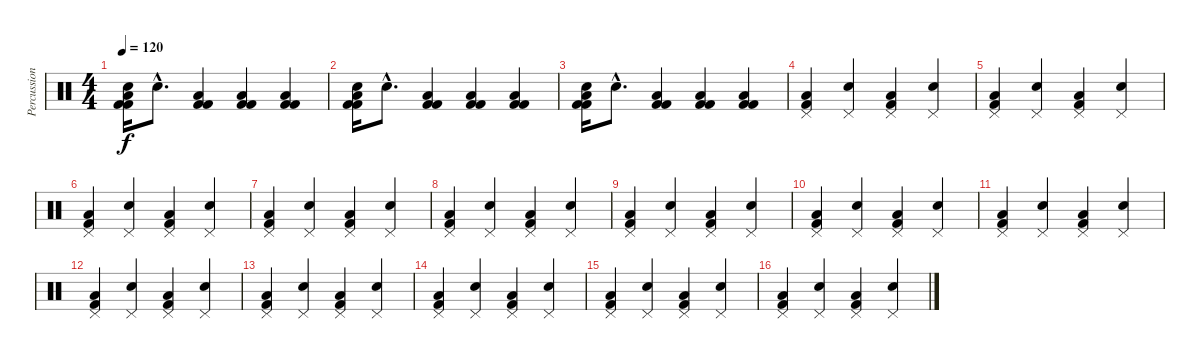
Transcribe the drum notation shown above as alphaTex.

\track ("Percussions" "Percussion") {instrument percussion}
\staff {score}
\articulation defaults
\ts (4 4)
\tempo 120
\clef neutral
\ks c
("Electric Snare (hit)" "Kick (hit) 2" "Kick (hit) 2" "Low Floor Tom (hit)").16{dy f} "Electric Snare (hit)"{hac}.8{d} ("Kick (hit) 2" "Kick (hit) 2" "Low Floor Tom (hit)").4 ("Kick (hit) 2" "Kick (hit) 2" "Low Floor Tom (hit)").4 ("Kick (hit) 2" "Kick (hit) 2" "Low Floor Tom (hit)").4 |
("Electric Snare (hit)" "Kick (hit) 2" "Kick (hit) 2" "Low Floor Tom (hit)").16 "Electric Snare (hit)"{hac}.8{d} ("Kick (hit) 2" "Kick (hit) 2" "Low Floor Tom (hit)").4 ("Kick (hit) 2" "Kick (hit) 2" "Low Floor Tom (hit)").4 ("Kick (hit) 2" "Kick (hit) 2" "Low Floor Tom (hit)").4 |
("Electric Snare (hit)" "Kick (hit) 2" "Kick (hit) 2" "Low Floor Tom (hit)").16 "Electric Snare (hit)"{hac}.8{d} ("Kick (hit) 2" "Kick (hit) 2" "Low Floor Tom (hit)").4 ("Kick (hit) 2" "Kick (hit) 2" "Low Floor Tom (hit)").4 ("Kick (hit) 2" "Kick (hit) 2" "Low Floor Tom (hit)").4 |
("Pedal Hi-Hat (hit)" "Kick (hit) 2" "Low Floor Tom (hit)").4 ("Pedal Hi-Hat (hit)" "Electric Snare (hit)").4 ("Pedal Hi-Hat (hit)" "Kick (hit) 2" "Low Floor Tom (hit)").4 ("Pedal Hi-Hat (hit)" "Electric Snare (hit)").4 |
("Pedal Hi-Hat (hit)" "Kick (hit) 2" "Low Floor Tom (hit)").4 ("Pedal Hi-Hat (hit)" "Electric Snare (hit)").4 ("Pedal Hi-Hat (hit)" "Kick (hit) 2" "Low Floor Tom (hit)").4 ("Pedal Hi-Hat (hit)" "Electric Snare (hit)").4 |
("Pedal Hi-Hat (hit)" "Kick (hit) 2" "Low Floor Tom (hit)").4 ("Pedal Hi-Hat (hit)" "Electric Snare (hit)").4 ("Pedal Hi-Hat (hit)" "Kick (hit) 2" "Low Floor Tom (hit)").4 ("Pedal Hi-Hat (hit)" "Electric Snare (hit)").4 |
("Pedal Hi-Hat (hit)" "Kick (hit) 2" "Low Floor Tom (hit)").4 ("Pedal Hi-Hat (hit)" "Electric Snare (hit)").4 ("Pedal Hi-Hat (hit)" "Kick (hit) 2" "Low Floor Tom (hit)").4 ("Pedal Hi-Hat (hit)" "Electric Snare (hit)").4 |
("Pedal Hi-Hat (hit)" "Kick (hit) 2" "Low Floor Tom (hit)").4 ("Pedal Hi-Hat (hit)" "Electric Snare (hit)").4 ("Pedal Hi-Hat (hit)" "Kick (hit) 2" "Low Floor Tom (hit)").4 ("Pedal Hi-Hat (hit)" "Electric Snare (hit)").4 |
("Pedal Hi-Hat (hit)" "Kick (hit) 2" "Low Floor Tom (hit)").4 ("Pedal Hi-Hat (hit)" "Electric Snare (hit)").4 ("Pedal Hi-Hat (hit)" "Kick (hit) 2" "Low Floor Tom (hit)").4 ("Pedal Hi-Hat (hit)" "Electric Snare (hit)").4 |
("Pedal Hi-Hat (hit)" "Kick (hit) 2" "Low Floor Tom (hit)").4 ("Pedal Hi-Hat (hit)" "Electric Snare (hit)").4 ("Pedal Hi-Hat (hit)" "Kick (hit) 2" "Low Floor Tom (hit)").4 ("Pedal Hi-Hat (hit)" "Electric Snare (hit)").4 |
("Pedal Hi-Hat (hit)" "Kick (hit) 2" "Low Floor Tom (hit)").4 ("Pedal Hi-Hat (hit)" "Electric Snare (hit)").4 ("Pedal Hi-Hat (hit)" "Kick (hit) 2" "Low Floor Tom (hit)").4 ("Pedal Hi-Hat (hit)" "Electric Snare (hit)").4 |
("Pedal Hi-Hat (hit)" "Kick (hit) 2" "Low Floor Tom (hit)").4 ("Pedal Hi-Hat (hit)" "Electric Snare (hit)").4 ("Pedal Hi-Hat (hit)" "Kick (hit) 2" "Low Floor Tom (hit)").4 ("Pedal Hi-Hat (hit)" "Electric Snare (hit)").4 |
("Pedal Hi-Hat (hit)" "Kick (hit) 2" "Low Floor Tom (hit)").4 ("Pedal Hi-Hat (hit)" "Electric Snare (hit)").4 ("Pedal Hi-Hat (hit)" "Kick (hit) 2" "Low Floor Tom (hit)").4 ("Pedal Hi-Hat (hit)" "Electric Snare (hit)").4 |
("Pedal Hi-Hat (hit)" "Kick (hit) 2" "Low Floor Tom (hit)").4 ("Pedal Hi-Hat (hit)" "Electric Snare (hit)").4 ("Pedal Hi-Hat (hit)" "Kick (hit) 2" "Low Floor Tom (hit)").4 ("Pedal Hi-Hat (hit)" "Electric Snare (hit)").4 |
("Pedal Hi-Hat (hit)" "Kick (hit) 2" "Low Floor Tom (hit)").4 ("Pedal Hi-Hat (hit)" "Electric Snare (hit)").4 ("Pedal Hi-Hat (hit)" "Kick (hit) 2" "Low Floor Tom (hit)").4 ("Pedal Hi-Hat (hit)" "Electric Snare (hit)").4 |
("Pedal Hi-Hat (hit)" "Kick (hit) 2" "Low Floor Tom (hit)").4 ("Pedal Hi-Hat (hit)" "Electric Snare (hit)").4 ("Pedal Hi-Hat (hit)" "Kick (hit) 2" "Low Floor Tom (hit)").4 ("Pedal Hi-Hat (hit)" "Electric Snare (hit)").4
